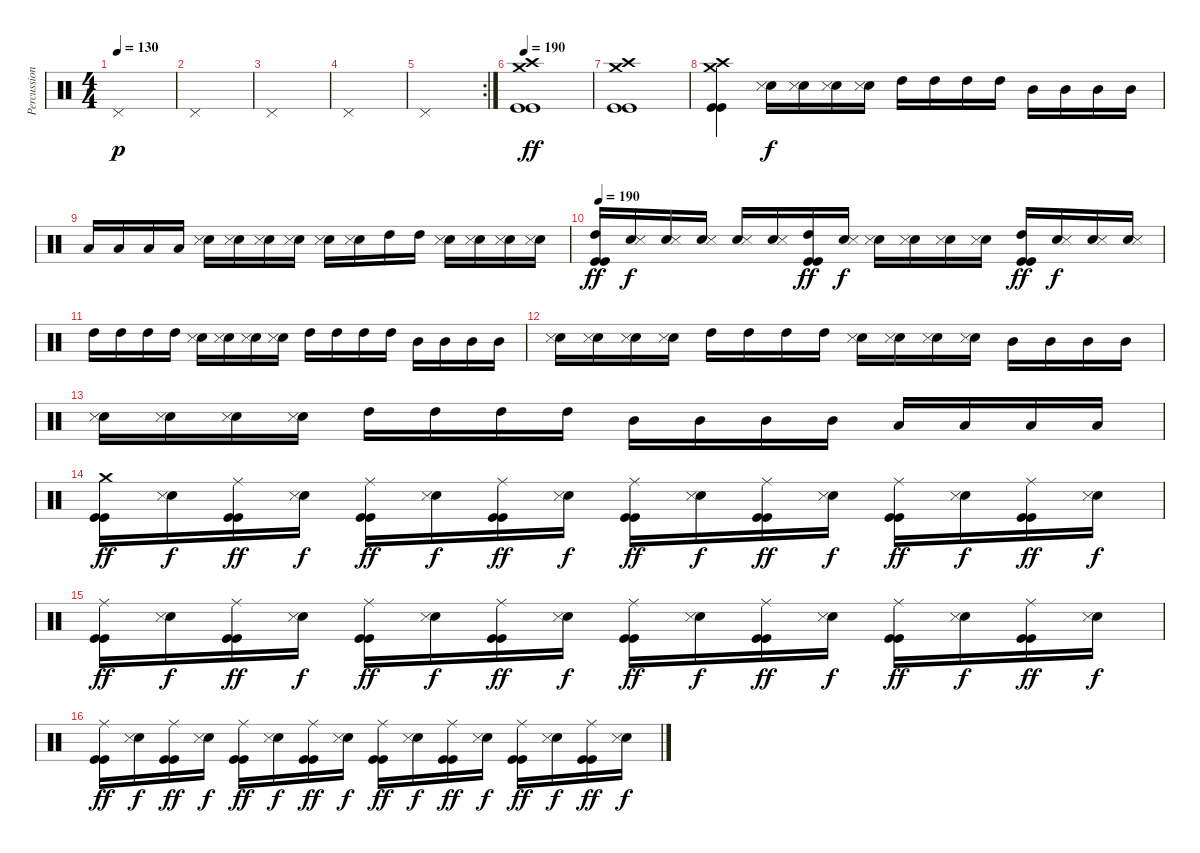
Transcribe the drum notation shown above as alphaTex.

\track ("Percussion" "Percussion") {instrument percussion}
\staff {score}
\articulation defaults
\ts (4 4)
\tempo 130
\clef neutral
\ks c "Pedal Hi-Hat (hit)".1{dy p}
|
"Pedal Hi-Hat (hit)".1 |
"Pedal Hi-Hat (hit)".1 |
"Pedal Hi-Hat (hit)".1 |
\rc 2 "Pedal Hi-Hat (hit)".1
|
\tempo 190
("Crash high (hit)" "Crash medium (hit)" "Kick (hit)" "Kick (hit)").1{dy ff} |
("Crash high (hit)" "Crash medium (hit)" "Kick (hit)" "Kick (hit)").1 |
("Crash medium (hit)" "Crash high (hit)" "Kick (hit)" "Kick (hit)").4 ("Electric Snare (hit)" "Snare (side stick) 3").16{dy f} ("Electric Snare (hit)" "Snare (side stick) 3").16 ("Electric Snare (hit)" "Snare (side stick) 3").16 ("Electric Snare (hit)" "Snare (side stick) 3").16 "High Tom (hit)".16 "High Tom (hit)".16 "High Tom (hit)".16 "High Tom (hit)".16 "Mid Tom (hit)".16 "Mid Tom (hit)".16 "Mid Tom (hit)".16 "Mid Tom (hit)".16 |
"Low Tom (hit)".16 "Low Tom (hit)".16 "Low Tom (hit)".16 "Low Tom (hit)".16 ("Electric Snare (hit)" "Snare (side stick) 3").16 ("Electric Snare (hit)" "Snare (side stick) 3").16 ("Electric Snare (hit)" "Snare (side stick) 3").16 ("Electric Snare (hit)" "Snare (side stick) 3").16 ("Electric Snare (hit)" "Snare (side stick) 3").16 ("Electric Snare (hit)" "Snare (side stick) 3").16 "High Tom (hit)".16 "High Tom (hit)".16 ("Electric Snare (hit)" "Snare (side stick) 3").16 ("Electric Snare (hit)" "Snare (side stick) 3").16 ("Electric Snare (hit)" "Snare (side stick) 3").16 ("Electric Snare (hit)" "Snare (side stick) 3").16 |
\tempo 190
("High Tom (hit)" "Kick (hit)" "Kick (hit)").16{dy ff} ("Electric Snare (hit)" "Snare (side stick) 3").16{dy f} ("Electric Snare (hit)" "Snare (side stick) 3").16 ("Electric Snare (hit)" "Snare (side stick) 3").16 ("Electric Snare (hit)" "Snare (side stick) 3").16 ("Electric Snare (hit)" "Snare (side stick) 3").16 ("High Tom (hit)" "Kick (hit)" "Kick (hit)").16{dy ff} ("Electric Snare (hit)" "Snare (side stick) 3").16{dy f} ("Electric Snare (hit)" "Snare (side stick) 3").16 ("Electric Snare (hit)" "Snare (side stick) 3").16 ("Electric Snare (hit)" "Snare (side stick) 3").16 ("Electric Snare (hit)" "Snare (side stick) 3").16 ("High Tom (hit)" "Kick (hit)" "Kick (hit)").16{dy ff} ("Electric Snare (hit)" "Snare (side stick) 3").16{dy f} ("Electric Snare (hit)" "Snare (side stick) 3").16 ("Electric Snare (hit)" "Snare (side stick) 3").16 |
"High Tom (hit)".16 "High Tom (hit)".16 "High Tom (hit)".16 "High Tom (hit)".16 ("Electric Snare (hit)" "Snare (side stick) 3").16 ("Electric Snare (hit)" "Snare (side stick) 3").16 ("Electric Snare (hit)" "Snare (side stick) 3").16 ("Electric Snare (hit)" "Snare (side stick) 3").16 "High Tom (hit)".16 "High Tom (hit)".16 "High Tom (hit)".16 "High Tom (hit)".16 "Mid Tom (hit)".16 "Mid Tom (hit)".16 "Mid Tom (hit)".16 "Mid Tom (hit)".16 |
("Electric Snare (hit)" "Snare (side stick) 3").16 ("Electric Snare (hit)" "Snare (side stick) 3").16 ("Electric Snare (hit)" "Snare (side stick) 3").16 ("Electric Snare (hit)" "Snare (side stick) 3").16 "High Tom (hit)".16 "High Tom (hit)".16 "High Tom (hit)".16 "High Tom (hit)".16 ("Electric Snare (hit)" "Snare (side stick) 3").16 ("Electric Snare (hit)" "Snare (side stick) 3").16 ("Electric Snare (hit)" "Snare (side stick) 3").16 ("Electric Snare (hit)" "Snare (side stick) 3").16 "Mid Tom (hit)".16 "Mid Tom (hit)".16 "Mid Tom (hit)".16 "Mid Tom (hit)".16 |
("Electric Snare (hit)" "Snare (side stick) 3").16 ("Electric Snare (hit)" "Snare (side stick) 3").16 ("Electric Snare (hit)" "Snare (side stick) 3").16 ("Electric Snare (hit)" "Snare (side stick) 3").16 "High Tom (hit)".16 "High Tom (hit)".16 "High Tom (hit)".16 "High Tom (hit)".16 "Mid Tom (hit)".16 "Mid Tom (hit)".16 "Mid Tom (hit)".16 "Mid Tom (hit)".16 "Low Tom (hit)".16 "Low Tom (hit)".16 "Low Tom (hit)".16 "Low Tom (hit)".16 |
("Crash medium (hit)" "Kick (hit)" "Kick (hit)").16{dy ff} ("Electric Snare (hit)" "Snare (side stick) 3").16{dy f} ("Ride (middle)" "Kick (hit)" "Kick (hit)").16{dy ff} ("Electric Snare (hit)" "Snare (side stick) 3").16{dy f} ("Ride (middle)" "Kick (hit)" "Kick (hit)").16{dy ff} ("Electric Snare (hit)" "Snare (side stick) 3").16{dy f} ("Ride (middle)" "Kick (hit)" "Kick (hit)").16{dy ff} ("Electric Snare (hit)" "Snare (side stick) 3").16{dy f} ("Ride (middle)" "Kick (hit)" "Kick (hit)").16{dy ff} ("Electric Snare (hit)" "Snare (side stick) 3").16{dy f} ("Ride (middle)" "Kick (hit)" "Kick (hit)").16{dy ff} ("Electric Snare (hit)" "Snare (side stick) 3").16{dy f} ("Ride (middle)" "Kick (hit)" "Kick (hit)").16{dy ff} ("Electric Snare (hit)" "Snare (side stick) 3").16{dy f} ("Ride (middle)" "Kick (hit)" "Kick (hit)").16{dy ff} ("Electric Snare (hit)" "Snare (side stick) 3").16{dy f} |
("Ride (middle)" "Kick (hit)" "Kick (hit)").16{dy ff} ("Electric Snare (hit)" "Snare (side stick) 3").16{dy f} ("Ride (middle)" "Kick (hit)" "Kick (hit)").16{dy ff} ("Electric Snare (hit)" "Snare (side stick) 3").16{dy f} ("Ride (middle)" "Kick (hit)" "Kick (hit)").16{dy ff} ("Electric Snare (hit)" "Snare (side stick) 3").16{dy f} ("Ride (middle)" "Kick (hit)" "Kick (hit)").16{dy ff} ("Electric Snare (hit)" "Snare (side stick) 3").16{dy f} ("Ride (middle)" "Kick (hit)" "Kick (hit)").16{dy ff} ("Electric Snare (hit)" "Snare (side stick) 3").16{dy f} ("Ride (middle)" "Kick (hit)" "Kick (hit)").16{dy ff} ("Electric Snare (hit)" "Snare (side stick) 3").16{dy f} ("Ride (middle)" "Kick (hit)" "Kick (hit)").16{dy ff} ("Electric Snare (hit)" "Snare (side stick) 3").16{dy f} ("Ride (middle)" "Kick (hit)" "Kick (hit)").16{dy ff} ("Electric Snare (hit)" "Snare (side stick) 3").16{dy f} |
("Ride (middle)" "Kick (hit)" "Kick (hit)").16{dy ff} ("Electric Snare (hit)" "Snare (side stick) 3").16{dy f} ("Ride (middle)" "Kick (hit)" "Kick (hit)").16{dy ff} ("Electric Snare (hit)" "Snare (side stick) 3").16{dy f} ("Ride (middle)" "Kick (hit)" "Kick (hit)").16{dy ff} ("Electric Snare (hit)" "Snare (side stick) 3").16{dy f} ("Ride (middle)" "Kick (hit)" "Kick (hit)").16{dy ff} ("Electric Snare (hit)" "Snare (side stick) 3").16{dy f} ("Ride (middle)" "Kick (hit)" "Kick (hit)").16{dy ff} ("Electric Snare (hit)" "Snare (side stick) 3").16{dy f} ("Ride (middle)" "Kick (hit)" "Kick (hit)").16{dy ff} ("Electric Snare (hit)" "Snare (side stick) 3").16{dy f} ("Ride (middle)" "Kick (hit)" "Kick (hit)").16{dy ff} ("Electric Snare (hit)" "Snare (side stick) 3").16{dy f} ("Ride (middle)" "Kick (hit)" "Kick (hit)").16{dy ff} ("Electric Snare (hit)" "Snare (side stick) 3").16{dy f}
